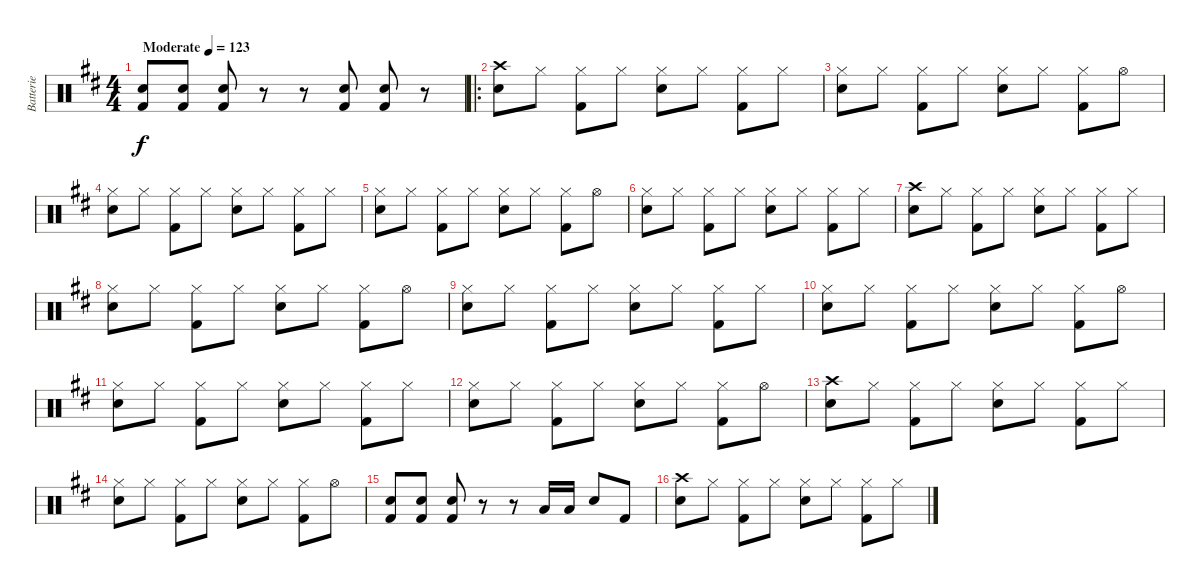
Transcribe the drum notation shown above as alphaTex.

\track ("Batterie" "Batterie") {instrument percussion}
\staff {score}
\articulation defaults
\ts (4 4)
\tempo (123 "Moderate")
\clef neutral
\ks d
("Snare (hit) 2" "Kick (hit) 2").8{dy f} ("Snare (hit) 2" "Kick (hit) 2").8 ("Snare (hit) 2" "Kick (hit) 2").8 r.8 r.8 ("Snare (hit) 2" "Kick (hit) 2").8 ("Snare (hit) 2" "Kick (hit) 2").8 r.8 |
\ro
("Crash high (hit)" "Snare (hit) 2").8 "Hi-Hat (closed)".8 ("Hi-Hat (closed)" "Kick (hit) 2").8 "Hi-Hat (closed)".8 ("Hi-Hat (closed)" "Snare (hit) 2").8 "Hi-Hat (closed)".8 ("Hi-Hat (closed)" "Kick (hit) 2").8 "Hi-Hat (closed)".8 |
("Hi-Hat (closed)" "Snare (hit) 2").8 "Hi-Hat (closed)".8 ("Hi-Hat (closed)" "Kick (hit) 2").8 "Hi-Hat (closed)".8 ("Hi-Hat (closed)" "Snare (hit) 2").8 "Hi-Hat (closed)".8 ("Hi-Hat (closed)" "Kick (hit) 2").8 "Hi-Hat (open)".8 |
("Hi-Hat (closed)" "Snare (hit) 2").8 "Hi-Hat (closed)".8 ("Hi-Hat (closed)" "Kick (hit) 2").8 "Hi-Hat (closed)".8 ("Hi-Hat (closed)" "Snare (hit) 2").8 "Hi-Hat (closed)".8 ("Hi-Hat (closed)" "Kick (hit) 2").8 "Hi-Hat (closed)".8 |
("Hi-Hat (closed)" "Snare (hit) 2").8 "Hi-Hat (closed)".8 ("Hi-Hat (closed)" "Kick (hit) 2").8 "Hi-Hat (closed)".8 ("Hi-Hat (closed)" "Snare (hit) 2").8 "Hi-Hat (closed)".8 ("Hi-Hat (closed)" "Kick (hit) 2").8 "Hi-Hat (open)".8 |
("Hi-Hat (closed)" "Snare (hit) 2").8 "Hi-Hat (closed)".8 ("Hi-Hat (closed)" "Kick (hit) 2").8 "Hi-Hat (closed)".8 ("Hi-Hat (closed)" "Snare (hit) 2").8 "Hi-Hat (closed)".8 ("Hi-Hat (closed)" "Kick (hit) 2").8 "Hi-Hat (closed)".8 |
("Crash high (hit)" "Snare (hit) 2").8 "Hi-Hat (closed)".8 ("Hi-Hat (closed)" "Kick (hit) 2").8 "Hi-Hat (closed)".8 ("Hi-Hat (closed)" "Snare (hit) 2").8 "Hi-Hat (closed)".8 ("Hi-Hat (closed)" "Kick (hit) 2").8 "Hi-Hat (closed)".8 |
("Hi-Hat (closed)" "Snare (hit) 2").8 "Hi-Hat (closed)".8 ("Hi-Hat (closed)" "Kick (hit) 2").8 "Hi-Hat (closed)".8 ("Hi-Hat (closed)" "Snare (hit) 2").8 "Hi-Hat (closed)".8 ("Hi-Hat (closed)" "Kick (hit) 2").8 "Hi-Hat (open)".8 |
("Hi-Hat (closed)" "Snare (hit) 2").8 "Hi-Hat (closed)".8 ("Hi-Hat (closed)" "Kick (hit) 2").8 "Hi-Hat (closed)".8 ("Hi-Hat (closed)" "Snare (hit) 2").8 "Hi-Hat (closed)".8 ("Hi-Hat (closed)" "Kick (hit) 2").8 "Hi-Hat (closed)".8 |
("Hi-Hat (closed)" "Snare (hit) 2").8 "Hi-Hat (closed)".8 ("Hi-Hat (closed)" "Kick (hit) 2").8 "Hi-Hat (closed)".8 ("Hi-Hat (closed)" "Snare (hit) 2").8 "Hi-Hat (closed)".8 ("Hi-Hat (closed)" "Kick (hit) 2").8 "Hi-Hat (open)".8 |
("Hi-Hat (closed)" "Snare (hit) 2").8 "Hi-Hat (closed)".8 ("Hi-Hat (closed)" "Kick (hit) 2").8 "Hi-Hat (closed)".8 ("Hi-Hat (closed)" "Snare (hit) 2").8 "Hi-Hat (closed)".8 ("Hi-Hat (closed)" "Kick (hit) 2").8 "Hi-Hat (closed)".8 |
("Hi-Hat (closed)" "Snare (hit) 2").8 "Hi-Hat (closed)".8 ("Hi-Hat (closed)" "Kick (hit) 2").8 "Hi-Hat (closed)".8 ("Hi-Hat (closed)" "Snare (hit) 2").8 "Hi-Hat (closed)".8 ("Hi-Hat (closed)" "Kick (hit) 2").8 "Hi-Hat (open)".8 |
("Crash high (hit)" "Snare (hit) 2").8 "Hi-Hat (closed)".8 ("Hi-Hat (closed)" "Kick (hit) 2").8 "Hi-Hat (closed)".8 ("Hi-Hat (closed)" "Snare (hit) 2").8 "Hi-Hat (closed)".8 ("Hi-Hat (closed)" "Kick (hit) 2").8 "Hi-Hat (closed)".8 |
("Hi-Hat (closed)" "Snare (hit) 2").8 "Hi-Hat (closed)".8 ("Hi-Hat (closed)" "Kick (hit) 2").8 "Hi-Hat (closed)".8 ("Hi-Hat (closed)" "Snare (hit) 2").8 "Hi-Hat (closed)".8 ("Hi-Hat (closed)" "Kick (hit) 2").8 "Hi-Hat (open)".8 |
("Snare (hit) 2" "Kick (hit) 2").8 ("Snare (hit) 2" "Kick (hit) 2").8 ("Snare (hit) 2" "Kick (hit) 2").8 r.8 r.8 "Low Tom (hit)".16 "Low Tom (hit)".16 "Snare (hit) 2".8 "Kick (hit) 2".8 |
("Crash high (hit)" "Snare (hit) 2").8 "Hi-Hat (closed)".8 ("Hi-Hat (closed)" "Kick (hit) 2").8 "Hi-Hat (closed)".8 ("Hi-Hat (closed)" "Snare (hit) 2").8 "Hi-Hat (closed)".8 ("Hi-Hat (closed)" "Kick (hit) 2").8 "Hi-Hat (closed)".8
